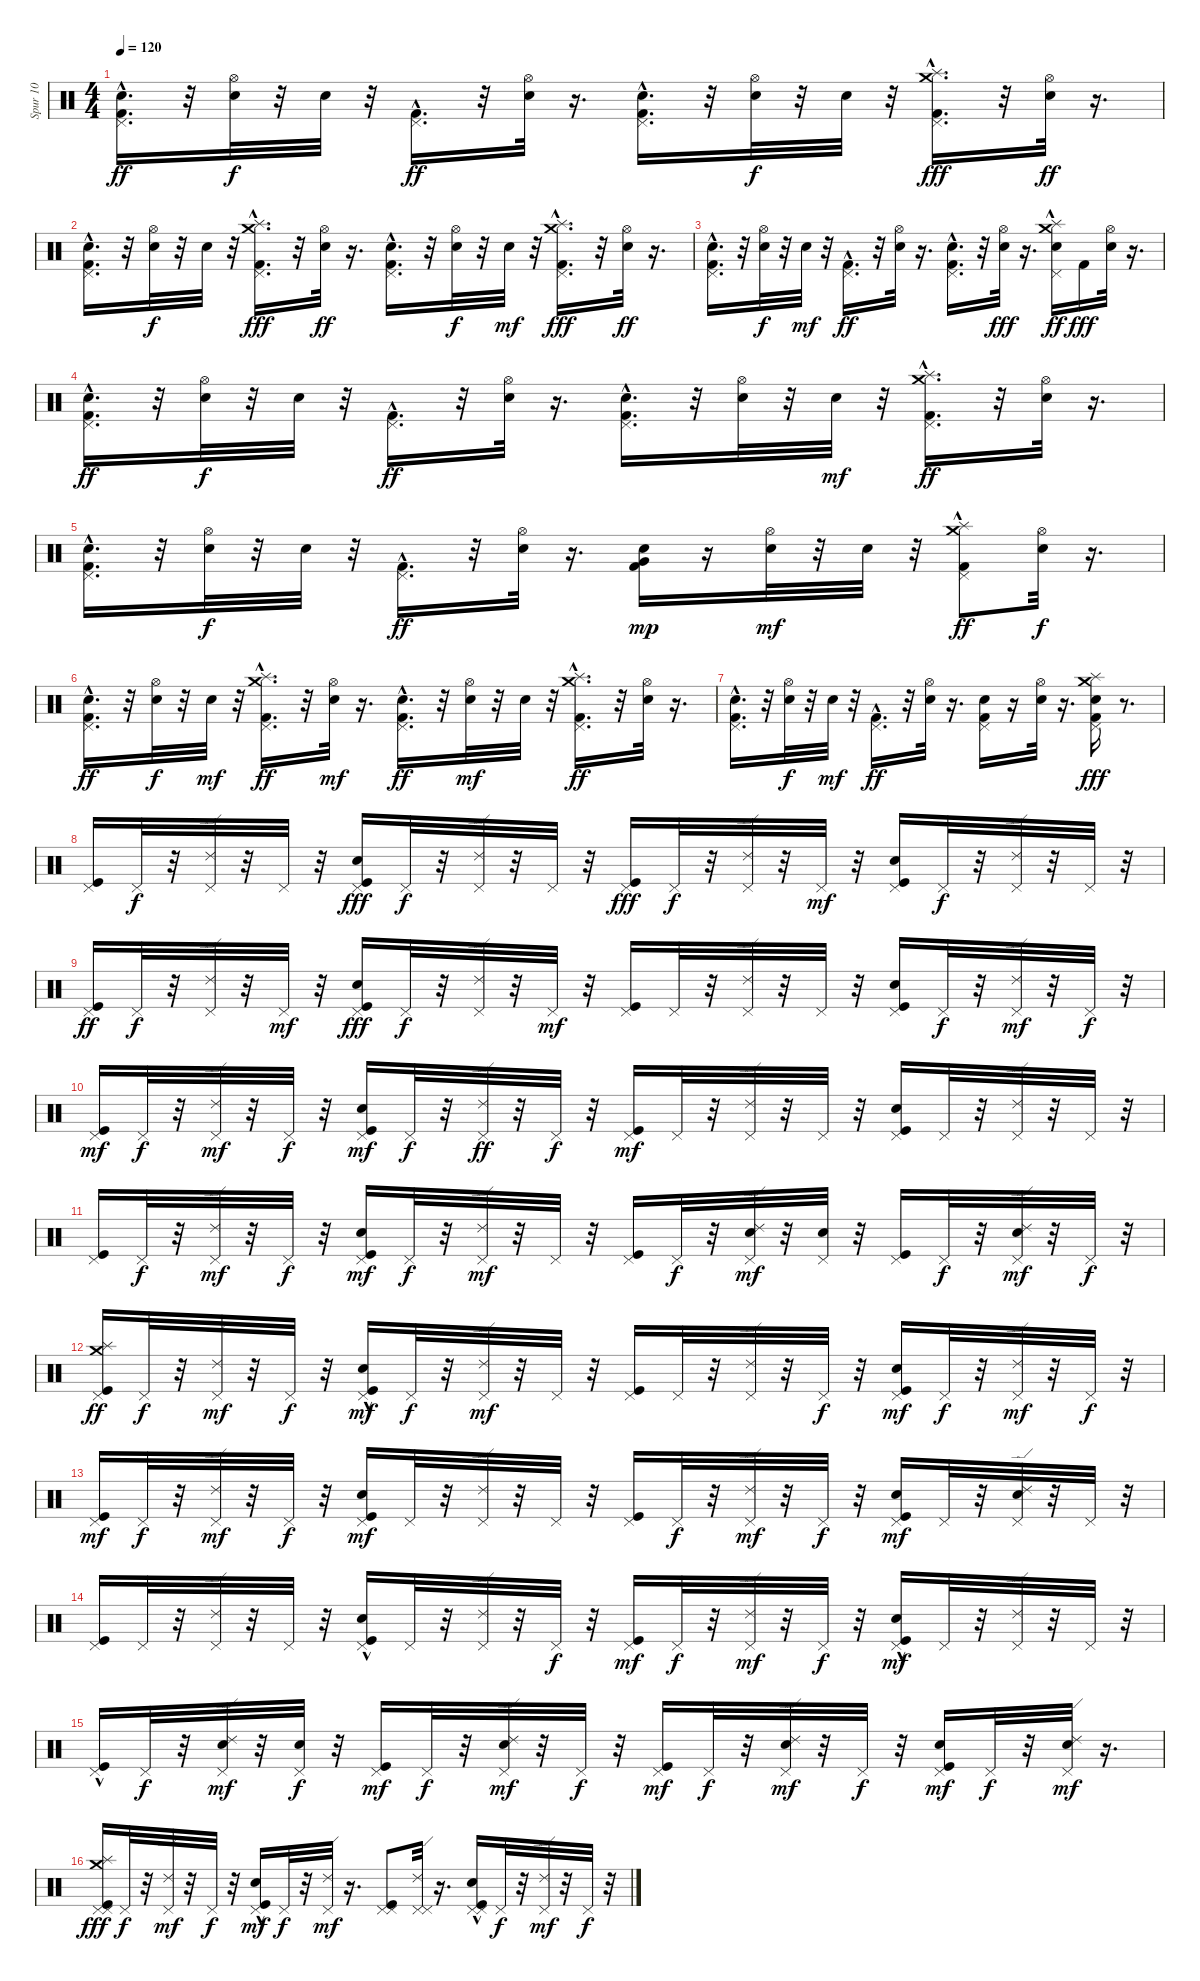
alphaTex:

\track ("Spur 10" "Spur 10") {instrument percussion}
\staff {score}
\articulation defaults
\ts (4 4)
\tempo 120
\clef neutral
\ks c
("Kick (hit) 2" "Electric Snare (hit)" "Pedal Hi-Hat (hit)"{hac}).16{d dy ff} r.32 ("Electric Snare (hit)" "Hi-Hat (open)").32{dy f} r.32 "Electric Snare (hit)".32 r.32 ("Kick (hit) 2"{hac} "Pedal Hi-Hat (hit)"{hac}).16{d dy ff} r.32 ("Electric Snare (hit)" "Hi-Hat (open)").32 r.16{d} ("Kick (hit) 2" "Electric Snare (hit)" "Pedal Hi-Hat (hit)"{hac}).16{d} r.32 ("Electric Snare (hit)" "Hi-Hat (open)").32{dy f} r.32 "Electric Snare (hit)".32 r.32 ("Kick (hit) 2" "Pedal Hi-Hat (hit)"{hac} "Crash medium (hit)" "Splash (hit)").16{d dy fff} r.32 ("Electric Snare (hit)" "Hi-Hat (open)").32{dy ff} r.16{d} |
("Kick (hit) 2" "Electric Snare (hit)" "Pedal Hi-Hat (hit)"{hac}).16{d} r.32 ("Electric Snare (hit)" "Hi-Hat (open)").32{dy f} r.32 "Electric Snare (hit)".32 r.32 ("Kick (hit) 2"{hac} "Pedal Hi-Hat (hit)"{hac} "Crash medium (hit)" "Splash (hit)").16{d dy fff} r.32 ("Electric Snare (hit)" "Hi-Hat (open)").32{dy ff} r.16{d} ("Kick (hit) 2" "Electric Snare (hit)" "Pedal Hi-Hat (hit)"{hac}).16{d} r.32 ("Electric Snare (hit)" "Hi-Hat (open)").32{dy f} r.32 "Electric Snare (hit)".32{dy mf} r.32 ("Kick (hit) 2"{hac} "Pedal Hi-Hat (hit)"{hac} "Splash (hit)" "Crash medium (hit)").16{d dy fff} r.32 ("Electric Snare (hit)" "Hi-Hat (open)").32{dy ff} r.16{d} |
("Kick (hit) 2" "Electric Snare (hit)" "Pedal Hi-Hat (hit)"{hac}).16{d} r.32 ("Electric Snare (hit)" "Hi-Hat (open)").32{dy f} r.32 "Electric Snare (hit)".32{dy mf} r.32 ("Kick (hit) 2"{hac} "Pedal Hi-Hat (hit)"{hac}).16{d dy ff} r.32 ("Electric Snare (hit)" "Hi-Hat (open)").32 r.16{d} ("Kick (hit) 2" "Electric Snare (hit)" "Pedal Hi-Hat (hit)"{hac}).16{d} r.32 ("Electric Snare (hit)" "Hi-Hat (open)").32{dy fff} r.16{d} ("Electric Snare (hit)" "Pedal Hi-Hat (hit)"{hac} "Crash medium (hit)" "Splash (hit)").16{dy ff} "Kick (hit) 2".16{dy fff} ("Electric Snare (hit)" "Hi-Hat (open)").32 r.16{d} |
("Electric Snare (hit)" "Kick (hit) 2" "Pedal Hi-Hat (hit)"{hac}).16{d dy ff} r.32 ("Electric Snare (hit)" "Hi-Hat (open)").32{dy f} r.32 "Electric Snare (hit)".32 r.32 ("Kick (hit) 2"{hac} "Pedal Hi-Hat (hit)"{hac}).16{d dy ff} r.32 ("Electric Snare (hit)" "Hi-Hat (open)").32 r.16{d} ("Kick (hit) 2" "Electric Snare (hit)" "Pedal Hi-Hat (hit)"{hac}).16{d} r.32 ("Electric Snare (hit)" "Hi-Hat (open)").32 r.32 "Electric Snare (hit)".32{dy mf} r.32 ("Kick (hit) 2"{hac} "Pedal Hi-Hat (hit)"{hac} "Crash medium (hit)" "Splash (hit)").16{d dy ff} r.32 ("Electric Snare (hit)" "Hi-Hat (open)").32 r.16{d} |
("Electric Snare (hit)" "Kick (hit) 2" "Pedal Hi-Hat (hit)"{hac}).16{d} r.32 ("Electric Snare (hit)" "Hi-Hat (open)").32{dy f} r.32 "Electric Snare (hit)".32 r.32 ("Kick (hit) 2"{hac} "Pedal Hi-Hat (hit)").16{d dy ff} r.32 ("Electric Snare (hit)" "Hi-Hat (open)").32 r.16{d} ("Electric Snare (hit)" "Kick (hit) 2" "Very Low Tom (hit)").16{dy mp} r.16 ("Electric Snare (hit)" "Hi-Hat (open)").32{dy mf} r.32 "Electric Snare (hit)".32 r.32 ("Kick (hit) 2"{hac} "Pedal Hi-Hat (hit)" "Splash (hit)" "Crash medium (hit)").8{dy ff} ("Electric Snare (hit)" "Hi-Hat (open)").32{dy f} r.16{d} |
("Kick (hit) 2" "Electric Snare (hit)" "Pedal Hi-Hat (hit)"{hac}).16{d dy ff} r.32 ("Electric Snare (hit)" "Hi-Hat (open)").32{dy f} r.32 "Electric Snare (hit)".32{dy mf} r.32 ("Kick (hit) 2"{hac} "Pedal Hi-Hat (hit)"{hac} "Crash medium (hit)" "Splash (hit)").16{d dy ff} r.32 ("Electric Snare (hit)" "Hi-Hat (open)").32{dy mf} r.16{d} ("Kick (hit) 2" "Electric Snare (hit)" "Pedal Hi-Hat (hit)"{hac}).16{d dy ff} r.32 ("Electric Snare (hit)" "Hi-Hat (open)").32{dy mf} r.32 "Electric Snare (hit)".32 r.32 ("Kick (hit) 2"{hac} "Pedal Hi-Hat (hit)"{hac} "Crash medium (hit)" "Splash (hit)").16{d dy ff} r.32 ("Electric Snare (hit)" "Hi-Hat (open)").32 r.16{d} |
("Kick (hit) 2" "Electric Snare (hit)" "Pedal Hi-Hat (hit)"{hac}).16{d} r.32 ("Electric Snare (hit)" "Hi-Hat (open)").32{dy f} r.32 "Electric Snare (hit)".32{dy mf} r.32 ("Kick (hit) 2"{hac} "Pedal Hi-Hat (hit)"{hac}).16{d dy ff} r.32 ("Electric Snare (hit)" "Hi-Hat (open)").32 r.16{d} ("Kick (hit) 2" "Electric Snare (hit)" "Pedal Hi-Hat (hit)").16 r.16 ("Electric Snare (hit)" "Hi-Hat (open)").32 r.16{d} ("Electric Snare (hit)" "Kick (hit) 2" "Pedal Hi-Hat (hit)" "Crash medium (hit)" "Splash (hit)").16{dy fff} r.8{d} |
("Kick (hit)" "Pedal Hi-Hat (hit)").16 "Pedal Hi-Hat (hit)".32{dy f} r.32 ("Ride (edge) 2" "Pedal Hi-Hat (hit)").32 r.32 "Pedal Hi-Hat (hit)".32 r.32 ("Snare (hit) 2" "Kick (hit)" "Pedal Hi-Hat (hit)").16{dy fff} "Pedal Hi-Hat (hit)".32{dy f} r.32 ("Ride (edge) 2" "Pedal Hi-Hat (hit)").32 r.32 "Pedal Hi-Hat (hit)".32 r.32 ("Kick (hit)" "Pedal Hi-Hat (hit)").16{dy fff} "Pedal Hi-Hat (hit)".32{dy f} r.32 ("Ride (edge) 2" "Pedal Hi-Hat (hit)").32 r.32 "Pedal Hi-Hat (hit)".32{dy mf} r.32 ("Snare (hit) 2" "Kick (hit)" "Pedal Hi-Hat (hit)").16 "Pedal Hi-Hat (hit)".32{dy f} r.32 ("Ride (edge) 2" "Pedal Hi-Hat (hit)").32 r.32 "Pedal Hi-Hat (hit)".32 r.32 |
("Kick (hit)" "Pedal Hi-Hat (hit)").16{dy ff} "Pedal Hi-Hat (hit)".32{dy f} r.32 ("Ride (edge) 2" "Pedal Hi-Hat (hit)").32 r.32 "Pedal Hi-Hat (hit)".32{dy mf} r.32 ("Snare (hit) 2" "Kick (hit)" "Pedal Hi-Hat (hit)").16{dy fff} "Pedal Hi-Hat (hit)".32{dy f} r.32 ("Ride (edge) 2" "Pedal Hi-Hat (hit)").32 r.32 "Pedal Hi-Hat (hit)".32{dy mf} r.32 ("Kick (hit)" "Pedal Hi-Hat (hit)").16 "Pedal Hi-Hat (hit)".32 r.32 ("Ride (edge) 2" "Pedal Hi-Hat (hit)").32 r.32 "Pedal Hi-Hat (hit)".32 r.32 ("Snare (hit) 2" "Kick (hit)" "Pedal Hi-Hat (hit)").16 "Pedal Hi-Hat (hit)".32{dy f} r.32 ("Ride (edge) 2" "Pedal Hi-Hat (hit)").32{dy mf} r.32 "Pedal Hi-Hat (hit)".32{dy f} r.32 |
("Kick (hit)" "Pedal Hi-Hat (hit)").16{dy mf} "Pedal Hi-Hat (hit)".32{dy f} r.32 ("Ride (edge) 2" "Pedal Hi-Hat (hit)").32{dy mf} r.32 "Pedal Hi-Hat (hit)".32{dy f} r.32 ("Snare (hit) 2" "Kick (hit)" "Pedal Hi-Hat (hit)").16{dy mf} "Pedal Hi-Hat (hit)".32{dy f} r.32 ("Ride (edge) 2" "Pedal Hi-Hat (hit)").32{dy ff} r.32 "Pedal Hi-Hat (hit)".32{dy f} r.32 ("Kick (hit)" "Pedal Hi-Hat (hit)").16{dy mf} "Pedal Hi-Hat (hit)".32 r.32 ("Ride (edge) 2" "Pedal Hi-Hat (hit)").32 r.32 "Pedal Hi-Hat (hit)".32 r.32 ("Snare (hit) 2" "Kick (hit)" "Pedal Hi-Hat (hit)").16 "Pedal Hi-Hat (hit)".32 r.32 ("Ride (edge) 2" "Pedal Hi-Hat (hit)").32 r.32 "Pedal Hi-Hat (hit)".32 r.32 |
("Kick (hit)" "Pedal Hi-Hat (hit)").16 "Pedal Hi-Hat (hit)".32{dy f} r.32 ("Ride (edge) 2" "Pedal Hi-Hat (hit)").32{dy mf} r.32 "Pedal Hi-Hat (hit)".32{dy f} r.32 ("Snare (hit) 2" "Kick (hit)" "Pedal Hi-Hat (hit)").16{dy mf} "Pedal Hi-Hat (hit)".32{dy f} r.32 ("Ride (edge) 2" "Pedal Hi-Hat (hit)").32{dy mf} r.32 "Pedal Hi-Hat (hit)".32 r.32 ("Kick (hit)" "Pedal Hi-Hat (hit)").16 "Pedal Hi-Hat (hit)".32{dy f} r.32 ("Snare (hit) 2" "Ride (edge) 2" "Pedal Hi-Hat (hit)").32{dy mf} r.32 ("Snare (hit) 2" "Pedal Hi-Hat (hit)").32 r.32 ("Kick (hit)" "Pedal Hi-Hat (hit)").16 "Pedal Hi-Hat (hit)".32{dy f} r.32 ("Snare (hit) 2" "Ride (edge) 2" "Pedal Hi-Hat (hit)").32{dy mf} r.32 "Pedal Hi-Hat (hit)".32{dy f} r.32 |
("Kick (hit)" "Pedal Hi-Hat (hit)" "Crash medium (hit)" "Splash (hit)").16{dy ff} "Pedal Hi-Hat (hit)".32{dy f} r.32 ("Ride (edge) 2" "Pedal Hi-Hat (hit)").32{dy mf} r.32 "Pedal Hi-Hat (hit)".32{dy f} r.32 ("Snare (hit) 2" "Kick (hit)"{hac} "Pedal Hi-Hat (hit)").16{dy mf} "Pedal Hi-Hat (hit)".32{dy f} r.32 ("Ride (edge) 2" "Pedal Hi-Hat (hit)").32{dy mf} r.32 "Pedal Hi-Hat (hit)".32 r.32 ("Kick (hit)" "Pedal Hi-Hat (hit)").16 "Pedal Hi-Hat (hit)".32 r.32 ("Ride (edge) 2" "Pedal Hi-Hat (hit)").32 r.32 "Pedal Hi-Hat (hit)".32{dy f} r.32 ("Kick (hit)" "Snare (hit) 2" "Pedal Hi-Hat (hit)").16{dy mf} "Pedal Hi-Hat (hit)".32{dy f} r.32 ("Ride (edge) 2" "Pedal Hi-Hat (hit)").32{dy mf} r.32 "Pedal Hi-Hat (hit)".32{dy f} r.32 |
("Kick (hit)" "Pedal Hi-Hat (hit)").16{dy mf} "Pedal Hi-Hat (hit)".32{dy f} r.32 ("Ride (edge) 2" "Pedal Hi-Hat (hit)").32{dy mf} r.32 "Pedal Hi-Hat (hit)".32{dy f} r.32 ("Snare (hit) 2" "Kick (hit)" "Pedal Hi-Hat (hit)").16{dy mf} "Pedal Hi-Hat (hit)".32 r.32 ("Ride (edge) 2" "Pedal Hi-Hat (hit)").32 r.32 "Pedal Hi-Hat (hit)".32 r.32 ("Kick (hit)" "Pedal Hi-Hat (hit)").16 "Pedal Hi-Hat (hit)".32{dy f} r.32 ("Ride (edge) 2" "Pedal Hi-Hat (hit)").32{dy mf} r.32 "Pedal Hi-Hat (hit)".32{dy f} r.32 ("Kick (hit)" "Snare (hit) 2" "Pedal Hi-Hat (hit)").16{dy mf} "Pedal Hi-Hat (hit)".32 r.32 ("Snare (hit) 2" "Ride (edge) 2" "Pedal Hi-Hat (hit)").32 r.32 "Pedal Hi-Hat (hit)".32 r.32 |
("Kick (hit)" "Pedal Hi-Hat (hit)").16 "Pedal Hi-Hat (hit)".32 r.32 ("Ride (edge) 2" "Pedal Hi-Hat (hit)").32 r.32 "Pedal Hi-Hat (hit)".32 r.32 ("Snare (hit) 2"{hac} "Kick (hit)" "Pedal Hi-Hat (hit)").16 "Pedal Hi-Hat (hit)".32 r.32 ("Ride (edge) 2" "Pedal Hi-Hat (hit)").32 r.32 "Pedal Hi-Hat (hit)".32{dy f} r.32 ("Kick (hit)" "Pedal Hi-Hat (hit)").16{dy mf} "Pedal Hi-Hat (hit)".32{dy f} r.32 ("Ride (edge) 2" "Pedal Hi-Hat (hit)").32{dy mf} r.32 "Pedal Hi-Hat (hit)".32{dy f} r.32 ("Snare (hit) 2"{hac} "Kick (hit)" "Pedal Hi-Hat (hit)").16{dy mf} "Pedal Hi-Hat (hit)".32 r.32 ("Ride (edge) 2" "Pedal Hi-Hat (hit)").32 r.32 "Pedal Hi-Hat (hit)".32 r.32 |
("Kick (hit)"{hac} "Pedal Hi-Hat (hit)").16 "Pedal Hi-Hat (hit)".32{dy f} r.32 ("Snare (hit) 2" "Ride (edge) 2" "Pedal Hi-Hat (hit)").32{dy mf} r.32 ("Snare (hit) 2" "Pedal Hi-Hat (hit)").32{dy f} r.32 ("Kick (hit)" "Pedal Hi-Hat (hit)").16{dy mf} "Pedal Hi-Hat (hit)".32{dy f} r.32 ("Snare (hit) 2" "Ride (edge) 2" "Pedal Hi-Hat (hit)").32{dy mf} r.32 "Pedal Hi-Hat (hit)".32{dy f} r.32 ("Kick (hit)" "Pedal Hi-Hat (hit)").16{dy mf} "Pedal Hi-Hat (hit)".32{dy f} r.32 ("Snare (hit) 2" "Ride (edge) 2" "Pedal Hi-Hat (hit)").32{dy mf} r.32 "Pedal Hi-Hat (hit)".32{dy f} r.32 ("Snare (hit) 2" "Kick (hit)" "Pedal Hi-Hat (hit)").16{dy mf} "Pedal Hi-Hat (hit)".32{dy f} r.32 ("Snare (hit) 2" "Ride (edge) 2" "Pedal Hi-Hat (hit)").32{dy mf} r.16{d} |
("Kick (hit)" "Pedal Hi-Hat (hit)" "Pedal Hi-Hat (hit)" "Crash medium (hit)" "Splash (hit)").16{dy fff} "Pedal Hi-Hat (hit)".32{dy f} r.32 ("Ride (edge) 2" "Pedal Hi-Hat (hit)").32{dy mf} r.32 "Pedal Hi-Hat (hit)".32{dy f} r.32 ("Snare (hit) 2"{hac} "Kick (hit)"{hac} "Pedal Hi-Hat (hit)").16{dy mf} "Pedal Hi-Hat (hit)".32{dy f} r.32 ("Ride (edge) 2" "Pedal Hi-Hat (hit)").32{dy mf} r.16{d} ("Kick (hit)" "Pedal Hi-Hat (hit)" "Pedal Hi-Hat (hit)").8 ("Ride (edge) 2" "Pedal Hi-Hat (hit)" "Pedal Hi-Hat (hit)").32 r.16{d} ("Snare (hit) 2"{hac} "Kick (hit)"{hac} "Pedal Hi-Hat (hit)" "Pedal Hi-Hat (hit)").16 "Pedal Hi-Hat (hit)".32{dy f} r.32 ("Ride (edge) 2" "Pedal Hi-Hat (hit)").32{dy mf} r.32 "Pedal Hi-Hat (hit)".32{dy f} r.32
